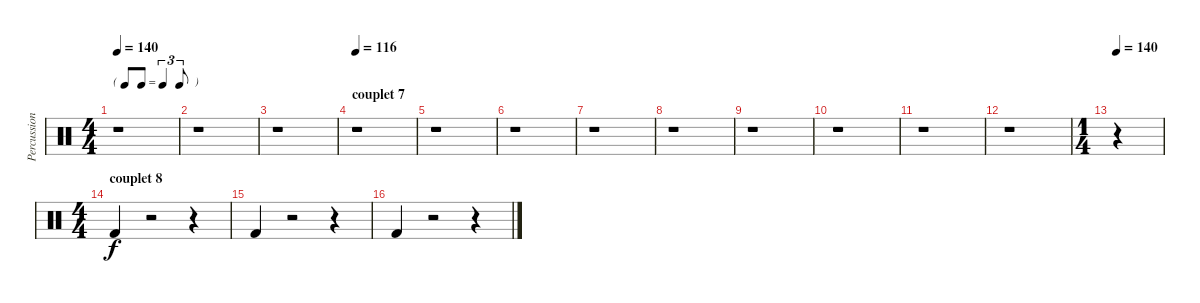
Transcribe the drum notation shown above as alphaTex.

\track ("Percussions" "Percussion") {instrument percussion}
\staff {score}
\articulation defaults
\ts (4 4)
\tf triplet8th
\tempo 140
\clef neutral
\ks c
r.1{dy f} |
r.1 |
r.1 |
\section ("" "couplet 7")
\tempo 116
r.1 |
r.1 |
r.1 |
r.1 |
r.1 |
r.1 |
r.1 |
r.1 |
r.1 |
\ts (1 4)
\tempo 140
r.4 |
\ts (4 4)
\section ("" "couplet 8")
"Kick (hit) 2".4 r.2 r.4 |
"Kick (hit) 2".4 r.2 r.4 |
"Kick (hit) 2".4 r.2 r.4
